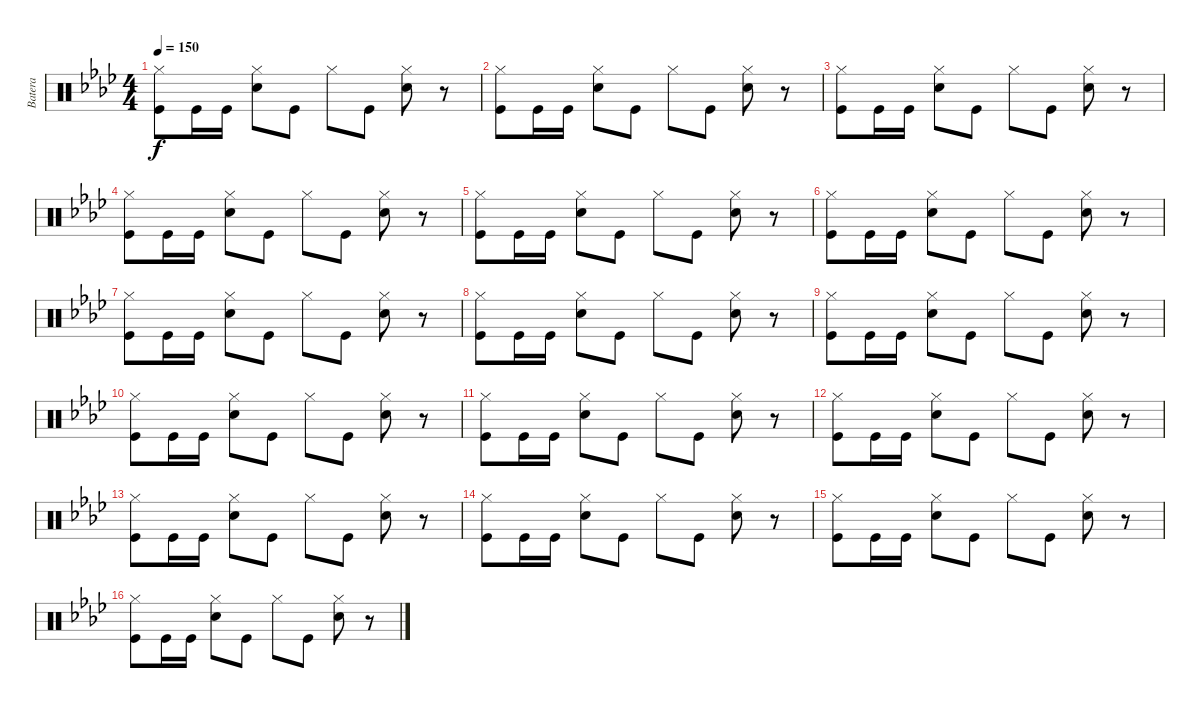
\track ("Batera" "Batera") {instrument percussion}
\staff {score}
\articulation defaults
\ts (4 4)
\tempo 150
\clef neutral
\ks fminor
("Hi-Hat (closed)" "Kick (hit)").8{dy f} "Kick (hit)".16 "Kick (hit)".16 ("Hi-Hat (closed)" "Snare (hit) 2").8 "Kick (hit)".8 "Hi-Hat (closed)".8 "Kick (hit)".8 ("Hi-Hat (closed)" "Snare (hit) 2").8 r.8 |
("Hi-Hat (closed)" "Kick (hit)").8 "Kick (hit)".16 "Kick (hit)".16 ("Hi-Hat (closed)" "Snare (hit) 2").8 "Kick (hit)".8 "Hi-Hat (closed)".8 "Kick (hit)".8 ("Hi-Hat (closed)" "Snare (hit) 2").8 r.8 |
("Hi-Hat (closed)" "Kick (hit)").8 "Kick (hit)".16 "Kick (hit)".16 ("Hi-Hat (closed)" "Snare (hit) 2").8 "Kick (hit)".8 "Hi-Hat (closed)".8 "Kick (hit)".8 ("Hi-Hat (closed)" "Snare (hit) 2").8 r.8 |
("Hi-Hat (closed)" "Kick (hit)").8 "Kick (hit)".16 "Kick (hit)".16 ("Hi-Hat (closed)" "Snare (hit) 2").8 "Kick (hit)".8 "Hi-Hat (closed)".8 "Kick (hit)".8 ("Hi-Hat (closed)" "Snare (hit) 2").8 r.8 |
("Hi-Hat (closed)" "Kick (hit)").8 "Kick (hit)".16 "Kick (hit)".16 ("Hi-Hat (closed)" "Snare (hit) 2").8 "Kick (hit)".8 "Hi-Hat (closed)".8 "Kick (hit)".8 ("Hi-Hat (closed)" "Snare (hit) 2").8 r.8 |
("Hi-Hat (closed)" "Kick (hit)").8 "Kick (hit)".16 "Kick (hit)".16 ("Hi-Hat (closed)" "Snare (hit) 2").8 "Kick (hit)".8 "Hi-Hat (closed)".8 "Kick (hit)".8 ("Hi-Hat (closed)" "Snare (hit) 2").8 r.8 |
("Hi-Hat (closed)" "Kick (hit)").8 "Kick (hit)".16 "Kick (hit)".16 ("Hi-Hat (closed)" "Snare (hit) 2").8 "Kick (hit)".8 "Hi-Hat (closed)".8 "Kick (hit)".8 ("Hi-Hat (closed)" "Snare (hit) 2").8 r.8 |
("Hi-Hat (closed)" "Kick (hit)").8 "Kick (hit)".16 "Kick (hit)".16 ("Hi-Hat (closed)" "Snare (hit) 2").8 "Kick (hit)".8 "Hi-Hat (closed)".8 "Kick (hit)".8 ("Hi-Hat (closed)" "Snare (hit) 2").8 r.8 |
("Hi-Hat (closed)" "Kick (hit)").8 "Kick (hit)".16 "Kick (hit)".16 ("Hi-Hat (closed)" "Snare (hit) 2").8 "Kick (hit)".8 "Hi-Hat (closed)".8 "Kick (hit)".8 ("Hi-Hat (closed)" "Snare (hit) 2").8 r.8 |
("Hi-Hat (closed)" "Kick (hit)").8 "Kick (hit)".16 "Kick (hit)".16 ("Hi-Hat (closed)" "Snare (hit) 2").8 "Kick (hit)".8 "Hi-Hat (closed)".8 "Kick (hit)".8 ("Hi-Hat (closed)" "Snare (hit) 2").8 r.8 |
("Hi-Hat (closed)" "Kick (hit)").8 "Kick (hit)".16 "Kick (hit)".16 ("Hi-Hat (closed)" "Snare (hit) 2").8 "Kick (hit)".8 "Hi-Hat (closed)".8 "Kick (hit)".8 ("Hi-Hat (closed)" "Snare (hit) 2").8 r.8 |
("Hi-Hat (closed)" "Kick (hit)").8 "Kick (hit)".16 "Kick (hit)".16 ("Hi-Hat (closed)" "Snare (hit) 2").8 "Kick (hit)".8 "Hi-Hat (closed)".8 "Kick (hit)".8 ("Hi-Hat (closed)" "Snare (hit) 2").8 r.8 |
("Hi-Hat (closed)" "Kick (hit)").8 "Kick (hit)".16 "Kick (hit)".16 ("Hi-Hat (closed)" "Snare (hit) 2").8 "Kick (hit)".8 "Hi-Hat (closed)".8 "Kick (hit)".8 ("Hi-Hat (closed)" "Snare (hit) 2").8 r.8 |
("Hi-Hat (closed)" "Kick (hit)").8 "Kick (hit)".16 "Kick (hit)".16 ("Hi-Hat (closed)" "Snare (hit) 2").8 "Kick (hit)".8 "Hi-Hat (closed)".8 "Kick (hit)".8 ("Hi-Hat (closed)" "Snare (hit) 2").8 r.8 |
("Hi-Hat (closed)" "Kick (hit)").8 "Kick (hit)".16 "Kick (hit)".16 ("Hi-Hat (closed)" "Snare (hit) 2").8 "Kick (hit)".8 "Hi-Hat (closed)".8 "Kick (hit)".8 ("Hi-Hat (closed)" "Snare (hit) 2").8 r.8 |
("Hi-Hat (closed)" "Kick (hit)").8 "Kick (hit)".16 "Kick (hit)".16 ("Hi-Hat (closed)" "Snare (hit) 2").8 "Kick (hit)".8 "Hi-Hat (closed)".8 "Kick (hit)".8 ("Hi-Hat (closed)" "Snare (hit) 2").8 r.8
